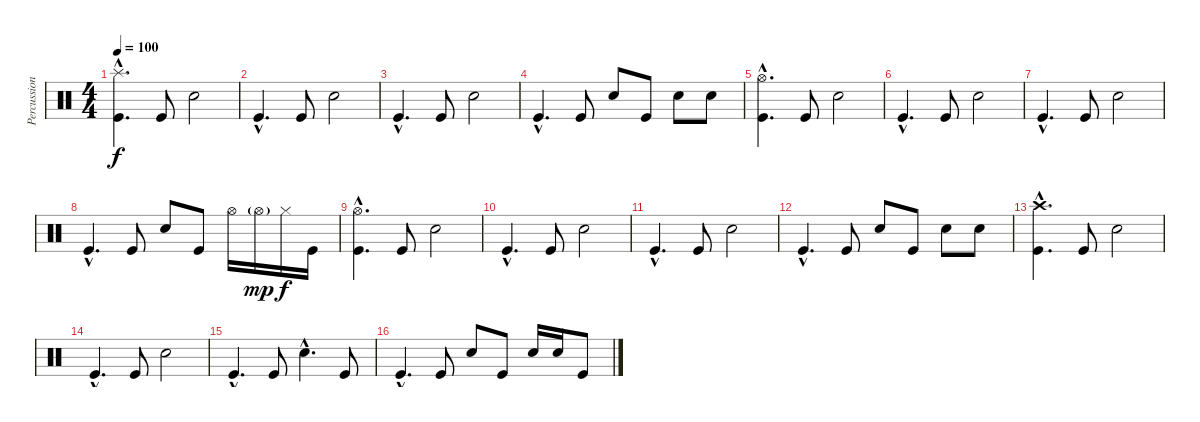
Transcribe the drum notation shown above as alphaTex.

\track ("Percussion" "Percussion") {instrument percussion}
\staff {score}
\articulation defaults
\ts (4 4)
\tempo 100
\clef neutral
\ks c
("Splash (hit)"{hac} "Kick (hit)"{hac}).4{d dy f} "Kick (hit)".8 "Snare (hit) 2".2 |
"Kick (hit)"{hac}.4{d} "Kick (hit)".8 "Snare (hit) 2".2 |
"Kick (hit)"{hac}.4{d} "Kick (hit)".8 "Snare (hit) 2".2 |
"Kick (hit)"{hac}.4{d} "Kick (hit)".8 "Snare (hit) 2".8 "Kick (hit)".8 "Snare (hit) 2".8 "Snare (hit) 2".8 |
("Hi-Hat (open)"{hac} "Kick (hit)"{hac}).4{d} "Kick (hit)".8 "Snare (hit) 2".2 |
"Kick (hit)"{hac}.4{d} "Kick (hit)".8 "Snare (hit) 2".2 |
"Kick (hit)"{hac}.4{d} "Kick (hit)".8 "Snare (hit) 2".2 |
"Kick (hit)"{hac}.4{d} "Kick (hit)".8 "Snare (hit) 2".8 "Kick (hit)".8 "Hi-Hat (open)".16 "Hi-Hat (open)"{g}.16{dy mp} "Hi-Hat (closed)".16{dy f} "Kick (hit)".16 |
("Hi-Hat (open)"{hac} "Kick (hit)"{hac}).4{d} "Kick (hit)".8 "Snare (hit) 2".2 |
"Kick (hit)"{hac}.4{d} "Kick (hit)".8 "Snare (hit) 2".2 |
"Kick (hit)"{hac}.4{d} "Kick (hit)".8 "Snare (hit) 2".2 |
"Kick (hit)"{hac}.4{d} "Kick (hit)".8 "Snare (hit) 2".8 "Kick (hit)".8 "Snare (hit) 2".8 "Snare (hit) 2".8 |
("Crash high (hit)"{hac} "Kick (hit)"{hac}).4{d} "Kick (hit)".8 "Snare (hit) 2".2 |
"Kick (hit)"{hac}.4{d} "Kick (hit)".8 "Snare (hit) 2".2 |
"Kick (hit)"{hac}.4{d} "Kick (hit)".8 "Snare (hit) 2"{hac}.4{d} "Kick (hit)".8 |
"Kick (hit)"{hac}.4{d} "Kick (hit)".8 "Snare (hit) 2".8 "Kick (hit)".8 "Snare (hit) 2".16 "Snare (hit) 2".16 "Kick (hit)".8
